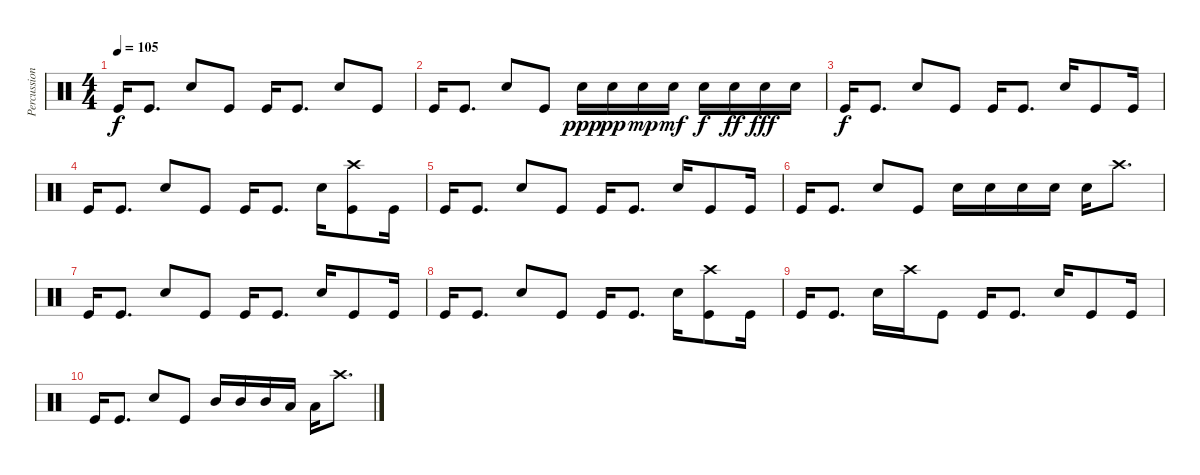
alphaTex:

\track ("Percussion" "Percussion") {instrument percussion}
\staff {score}
\articulation defaults
\ts (4 4)
\tempo 105
\clef neutral
\ks c "Kick (hit)".16{dy f} "Kick (hit)".8{d} "Electric Snare (hit)".8 "Kick (hit)".8 "Kick (hit)".16 "Kick (hit)".8{d} "Electric Snare (hit)".8 "Kick (hit)".8
|
"Kick (hit)".16 "Kick (hit)".8{d} "Electric Snare (hit)".8 "Kick (hit)".8 "Electric Snare (hit)".16{dy ppp} "Electric Snare (hit)".16{dy pp} "Electric Snare (hit)".16{dy mp} "Electric Snare (hit)".16{dy mf} "Electric Snare (hit)".16{dy f} "Electric Snare (hit)".16{dy ff} "Electric Snare (hit)".16{dy fff} "Electric Snare (hit)".16 |
"Kick (hit)".16{dy f} "Kick (hit)".8{d} "Electric Snare (hit)".8 "Kick (hit)".8 "Kick (hit)".16 "Kick (hit)".8{d} "Electric Snare (hit)".16 "Kick (hit)".8 "Kick (hit)".16 |
"Kick (hit)".16 "Kick (hit)".8{d} "Electric Snare (hit)".8 "Kick (hit)".8 "Kick (hit)".16 "Kick (hit)".8{d} "Electric Snare (hit)".16 ("Crash high (hit)" "Kick (hit)").8 "Kick (hit)".16 |
"Kick (hit)".16 "Kick (hit)".8{d} "Electric Snare (hit)".8 "Kick (hit)".8 "Kick (hit)".16 "Kick (hit)".8{d} "Electric Snare (hit)".16 "Kick (hit)".8 "Kick (hit)".16 |
"Kick (hit)".16 "Kick (hit)".8{d} "Electric Snare (hit)".8 "Kick (hit)".8 "Electric Snare (hit)".16 "Electric Snare (hit)".16 "Electric Snare (hit)".16 "Electric Snare (hit)".16 "Electric Snare (hit)".16 "Crash high (hit)".8{d} |
"Kick (hit)".16 "Kick (hit)".8{d} "Electric Snare (hit)".8 "Kick (hit)".8 "Kick (hit)".16 "Kick (hit)".8{d} "Electric Snare (hit)".16 "Kick (hit)".8 "Kick (hit)".16 |
"Kick (hit)".16 "Kick (hit)".8{d} "Electric Snare (hit)".8 "Kick (hit)".8 "Kick (hit)".16 "Kick (hit)".8{d} "Electric Snare (hit)".16 ("Crash high (hit)" "Kick (hit)").8 "Kick (hit)".16 |
"Kick (hit)".16 "Kick (hit)".8{d} "Electric Snare (hit)".16 "Crash high (hit)".16 "Kick (hit)".8 "Kick (hit)".16 "Kick (hit)".8{d} "Electric Snare (hit)".16 "Kick (hit)".8 "Kick (hit)".16 |
"Kick (hit)".16 "Kick (hit)".8{d} "Electric Snare (hit)".8 "Kick (hit)".8 "Mid Tom (hit)".16 "Mid Tom (hit)".16 "Mid Tom (hit)".16 "Low Tom (hit)".16 "Low Tom (hit)".16 "Crash high (hit)".8{d}
